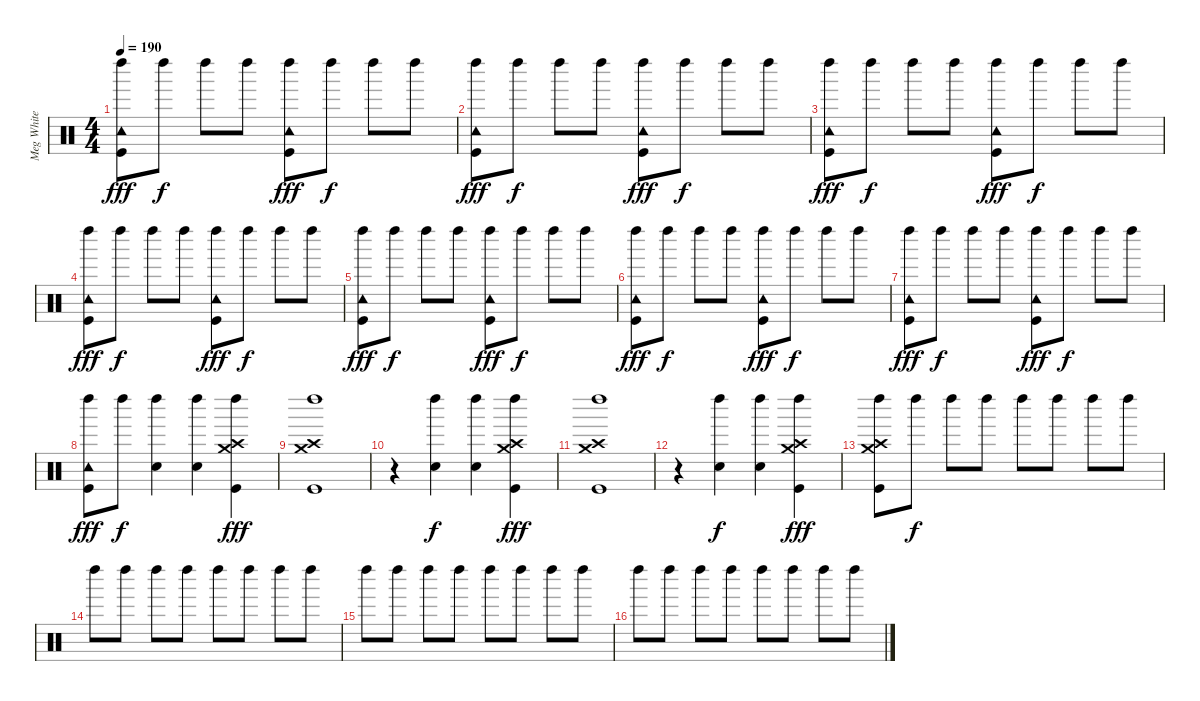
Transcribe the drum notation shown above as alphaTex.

\track ("Meg White" "Meg White") {instrument percussion}
\staff {score}
\articulation defaults
\ts (4 4)
\tempo 190
\clef neutral
\ks c
("Tambourine (hit)" "Kick (hit)" "Left Maraca (hit)").8{dy fff} "Left Maraca (hit)".8{dy f} "Left Maraca (hit)".8 "Left Maraca (hit)".8 ("Tambourine (hit)" "Kick (hit)" "Left Maraca (hit)").8{dy fff} "Left Maraca (hit)".8{dy f} "Left Maraca (hit)".8 "Left Maraca (hit)".8 |
("Tambourine (hit)" "Kick (hit)" "Left Maraca (hit)").8{dy fff} "Left Maraca (hit)".8{dy f} "Left Maraca (hit)".8 "Left Maraca (hit)".8 ("Tambourine (hit)" "Kick (hit)" "Left Maraca (hit)").8{dy fff} "Left Maraca (hit)".8{dy f} "Left Maraca (hit)".8 "Left Maraca (hit)".8 |
("Tambourine (hit)" "Kick (hit)" "Left Maraca (hit)").8{dy fff} "Left Maraca (hit)".8{dy f} "Left Maraca (hit)".8 "Left Maraca (hit)".8 ("Tambourine (hit)" "Kick (hit)" "Left Maraca (hit)").8{dy fff} "Left Maraca (hit)".8{dy f} "Left Maraca (hit)".8 "Left Maraca (hit)".8 |
("Tambourine (hit)" "Kick (hit)" "Left Maraca (hit)").8{dy fff} "Left Maraca (hit)".8{dy f} "Left Maraca (hit)".8 "Left Maraca (hit)".8 ("Tambourine (hit)" "Kick (hit)" "Left Maraca (hit)").8{dy fff} "Left Maraca (hit)".8{dy f} "Left Maraca (hit)".8 "Left Maraca (hit)".8 |
("Tambourine (hit)" "Kick (hit)" "Left Maraca (hit)").8{dy fff} "Left Maraca (hit)".8{dy f} "Left Maraca (hit)".8 "Left Maraca (hit)".8 ("Tambourine (hit)" "Kick (hit)" "Left Maraca (hit)").8{dy fff} "Left Maraca (hit)".8{dy f} "Left Maraca (hit)".8 "Left Maraca (hit)".8 |
("Tambourine (hit)" "Kick (hit)" "Left Maraca (hit)").8{dy fff} "Left Maraca (hit)".8{dy f} "Left Maraca (hit)".8 "Left Maraca (hit)".8 ("Tambourine (hit)" "Kick (hit)" "Left Maraca (hit)").8{dy fff} "Left Maraca (hit)".8{dy f} "Left Maraca (hit)".8 "Left Maraca (hit)".8 |
("Tambourine (hit)" "Kick (hit)" "Left Maraca (hit)").8{dy fff} "Left Maraca (hit)".8{dy f} "Left Maraca (hit)".8 "Left Maraca (hit)".8 ("Tambourine (hit)" "Kick (hit)" "Left Maraca (hit)").8{dy fff} "Left Maraca (hit)".8{dy f} "Left Maraca (hit)".8 "Left Maraca (hit)".8 |
("Tambourine (hit)" "Kick (hit)" "Left Maraca (hit)").8{dy fff} "Left Maraca (hit)".8{dy f} ("Snare (hit) 2" "Left Maraca (hit)").4 ("Snare (hit) 2" "Left Maraca (hit)").4 ("Crash high (hit)" "Crash medium (hit)" "Kick (hit)" "Left Maraca (hit)").4{dy fff} |
("Crash high (hit)" "Crash medium (hit)" "Kick (hit)" "Left Maraca (hit)").1 |
r.4 ("Snare (hit) 2" "Left Maraca (hit)").4{dy f} ("Snare (hit) 2" "Left Maraca (hit)").4 ("Crash high (hit)" "Crash medium (hit)" "Kick (hit)" "Left Maraca (hit)").4{dy fff} |
("Crash high (hit)" "Crash medium (hit)" "Kick (hit)" "Left Maraca (hit)").1 |
r.4 ("Snare (hit) 2" "Left Maraca (hit)").4{dy f} ("Snare (hit) 2" "Left Maraca (hit)").4 ("Crash high (hit)" "Crash medium (hit)" "Kick (hit)" "Left Maraca (hit)").4{dy fff} |
("Crash high (hit)" "Crash medium (hit)" "Kick (hit)" "Left Maraca (hit)").8 "Left Maraca (hit)".8{dy f} "Left Maraca (hit)".8 "Left Maraca (hit)".8 "Left Maraca (hit)".8 "Left Maraca (hit)".8 "Left Maraca (hit)".8 "Left Maraca (hit)".8 |
"Left Maraca (hit)".8 "Left Maraca (hit)".8 "Left Maraca (hit)".8 "Left Maraca (hit)".8 "Left Maraca (hit)".8 "Left Maraca (hit)".8 "Left Maraca (hit)".8 "Left Maraca (hit)".8 |
"Left Maraca (hit)".8 "Left Maraca (hit)".8 "Left Maraca (hit)".8 "Left Maraca (hit)".8 "Left Maraca (hit)".8 "Left Maraca (hit)".8 "Left Maraca (hit)".8 "Left Maraca (hit)".8 |
"Left Maraca (hit)".8 "Left Maraca (hit)".8 "Left Maraca (hit)".8 "Left Maraca (hit)".8 "Left Maraca (hit)".8 "Left Maraca (hit)".8 "Left Maraca (hit)".8 "Left Maraca (hit)".8
